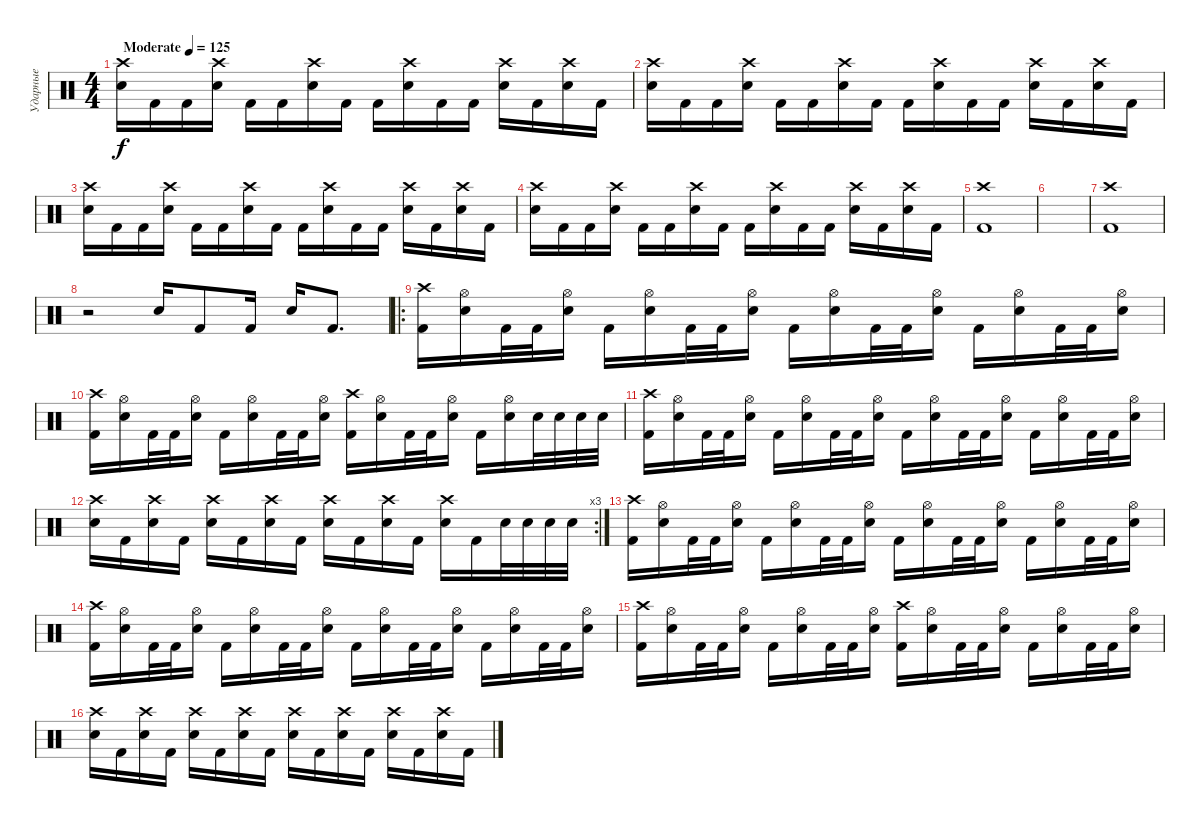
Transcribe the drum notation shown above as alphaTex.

\track ("Ударные" "Ударные") {instrument percussion}
\staff {score}
\articulation defaults
\ts (4 4)
\tempo (125 "Moderate")
\clef neutral
\ks c
("Electric Snare (hit)" "Crash high (hit)").16{dy f} "Kick (hit) 2".16 "Kick (hit) 2".16 ("Electric Snare (hit)" "Crash high (hit)").16 "Kick (hit) 2".16 "Kick (hit) 2".16 ("Electric Snare (hit)" "Crash high (hit)").16 "Kick (hit) 2".16 "Kick (hit) 2".16 ("Electric Snare (hit)" "Crash high (hit)").16 "Kick (hit) 2".16 "Kick (hit) 2".16 ("Electric Snare (hit)" "Crash high (hit)").16 "Kick (hit) 2".16 ("Electric Snare (hit)" "Crash high (hit)").16 "Kick (hit) 2".16 |
("Electric Snare (hit)" "Crash high (hit)").16 "Kick (hit) 2".16 "Kick (hit) 2".16 ("Electric Snare (hit)" "Crash high (hit)").16 "Kick (hit) 2".16 "Kick (hit) 2".16 ("Electric Snare (hit)" "Crash high (hit)").16 "Kick (hit) 2".16 "Kick (hit) 2".16 ("Electric Snare (hit)" "Crash high (hit)").16 "Kick (hit) 2".16 "Kick (hit) 2".16 ("Electric Snare (hit)" "Crash high (hit)").16 "Kick (hit) 2".16 ("Electric Snare (hit)" "Crash high (hit)").16 "Kick (hit) 2".16 |
("Electric Snare (hit)" "Crash high (hit)").16 "Kick (hit) 2".16 "Kick (hit) 2".16 ("Electric Snare (hit)" "Crash high (hit)").16 "Kick (hit) 2".16 "Kick (hit) 2".16 ("Electric Snare (hit)" "Crash high (hit)").16 "Kick (hit) 2".16 "Kick (hit) 2".16 ("Electric Snare (hit)" "Crash high (hit)").16 "Kick (hit) 2".16 "Kick (hit) 2".16 ("Electric Snare (hit)" "Crash high (hit)").16 "Kick (hit) 2".16 ("Electric Snare (hit)" "Crash high (hit)").16 "Kick (hit) 2".16 |
("Electric Snare (hit)" "Crash high (hit)").16 "Kick (hit) 2".16 "Kick (hit) 2".16 ("Electric Snare (hit)" "Crash high (hit)").16 "Kick (hit) 2".16 "Kick (hit) 2".16 ("Electric Snare (hit)" "Crash high (hit)").16 "Kick (hit) 2".16 "Kick (hit) 2".16 ("Electric Snare (hit)" "Crash high (hit)").16 "Kick (hit) 2".16 "Kick (hit) 2".16 ("Electric Snare (hit)" "Crash high (hit)").16 "Kick (hit) 2".16 ("Electric Snare (hit)" "Crash high (hit)").16 "Kick (hit) 2".16 |
("Kick (hit) 2" "Crash high (hit)").1 |
|
("Crash high (hit)" "Kick (hit) 2").1 |
r.2 "Electric Snare (hit)".16 "Kick (hit) 2".8 "Kick (hit) 2".16 "Electric Snare (hit)".16 "Kick (hit) 2".8{d} |
\ro
("Kick (hit) 2" "Crash high (hit)").16 ("Electric Snare (hit)" "Hi-Hat (open)").16 "Kick (hit) 2".32 "Kick (hit) 2".32 ("Electric Snare (hit)" "Hi-Hat (open)").16 "Kick (hit) 2".16 ("Electric Snare (hit)" "Hi-Hat (open)").16 "Kick (hit) 2".32 "Kick (hit) 2".32 ("Electric Snare (hit)" "Hi-Hat (open)").16 "Kick (hit) 2".16 ("Electric Snare (hit)" "Hi-Hat (open)").16 "Kick (hit) 2".32 "Kick (hit) 2".32 ("Electric Snare (hit)" "Hi-Hat (open)").16 "Kick (hit) 2".16 ("Electric Snare (hit)" "Hi-Hat (open)").16 "Kick (hit) 2".32 "Kick (hit) 2".32 ("Electric Snare (hit)" "Hi-Hat (open)").16 |
("Kick (hit) 2" "Crash high (hit)").16 ("Electric Snare (hit)" "Hi-Hat (open)").16 "Kick (hit) 2".32 "Kick (hit) 2".32 ("Electric Snare (hit)" "Hi-Hat (open)").16 "Kick (hit) 2".16 ("Electric Snare (hit)" "Hi-Hat (open)").16 "Kick (hit) 2".32 "Kick (hit) 2".32 ("Electric Snare (hit)" "Hi-Hat (open)").16 ("Kick (hit) 2" "Crash high (hit)").16 ("Electric Snare (hit)" "Hi-Hat (open)").16 "Kick (hit) 2".32 "Kick (hit) 2".32 ("Electric Snare (hit)" "Hi-Hat (open)").16 "Kick (hit) 2".16 ("Electric Snare (hit)" "Hi-Hat (open)").16 "Electric Snare (hit)".32 "Electric Snare (hit)".32 "Electric Snare (hit)".32 "Electric Snare (hit)".32 |
("Kick (hit) 2" "Crash high (hit)").16 ("Electric Snare (hit)" "Hi-Hat (open)").16 "Kick (hit) 2".32 "Kick (hit) 2".32 ("Electric Snare (hit)" "Hi-Hat (open)").16 "Kick (hit) 2".16 ("Electric Snare (hit)" "Hi-Hat (open)").16 "Kick (hit) 2".32 "Kick (hit) 2".32 ("Electric Snare (hit)" "Hi-Hat (open)").16 "Kick (hit) 2".16 ("Electric Snare (hit)" "Hi-Hat (open)").16 "Kick (hit) 2".32 "Kick (hit) 2".32 ("Electric Snare (hit)" "Hi-Hat (open)").16 "Kick (hit) 2".16 ("Electric Snare (hit)" "Hi-Hat (open)").16 "Kick (hit) 2".32 "Kick (hit) 2".32 ("Electric Snare (hit)" "Hi-Hat (open)").16 |
\rc 3
("Electric Snare (hit)" "Crash high (hit)").16 "Kick (hit) 2".16 ("Electric Snare (hit)" "Crash high (hit)").16 "Kick (hit) 2".16 ("Electric Snare (hit)" "Crash high (hit)").16 "Kick (hit) 2".16 ("Electric Snare (hit)" "Crash high (hit)").16 "Kick (hit) 2".16 ("Electric Snare (hit)" "Crash high (hit)").16 "Kick (hit) 2".16 ("Electric Snare (hit)" "Crash high (hit)").16 "Kick (hit) 2".16 ("Electric Snare (hit)" "Crash high (hit)").16 "Kick (hit) 2".16 "Electric Snare (hit)".32 "Electric Snare (hit)".32 "Electric Snare (hit)".32 "Electric Snare (hit)".32 |
("Kick (hit) 2" "Crash high (hit)").16 ("Electric Snare (hit)" "Hi-Hat (open)").16 "Kick (hit) 2".32 "Kick (hit) 2".32 ("Electric Snare (hit)" "Hi-Hat (open)").16 "Kick (hit) 2".16 ("Electric Snare (hit)" "Hi-Hat (open)").16 "Kick (hit) 2".32 "Kick (hit) 2".32 ("Electric Snare (hit)" "Hi-Hat (open)").16 "Kick (hit) 2".16 ("Electric Snare (hit)" "Hi-Hat (open)").16 "Kick (hit) 2".32 "Kick (hit) 2".32 ("Electric Snare (hit)" "Hi-Hat (open)").16 "Kick (hit) 2".16 ("Electric Snare (hit)" "Hi-Hat (open)").16 "Kick (hit) 2".32 "Kick (hit) 2".32 ("Electric Snare (hit)" "Hi-Hat (open)").16 |
("Kick (hit) 2" "Crash high (hit)").16 ("Electric Snare (hit)" "Hi-Hat (open)").16 "Kick (hit) 2".32 "Kick (hit) 2".32 ("Electric Snare (hit)" "Hi-Hat (open)").16 "Kick (hit) 2".16 ("Electric Snare (hit)" "Hi-Hat (open)").16 "Kick (hit) 2".32 "Kick (hit) 2".32 ("Electric Snare (hit)" "Hi-Hat (open)").16 "Kick (hit) 2".16 ("Electric Snare (hit)" "Hi-Hat (open)").16 "Kick (hit) 2".32 "Kick (hit) 2".32 ("Electric Snare (hit)" "Hi-Hat (open)").16 "Kick (hit) 2".16 ("Electric Snare (hit)" "Hi-Hat (open)").16 "Kick (hit) 2".32 "Kick (hit) 2".32 ("Electric Snare (hit)" "Hi-Hat (open)").16 |
("Kick (hit) 2" "Crash high (hit)").16 ("Electric Snare (hit)" "Hi-Hat (open)").16 "Kick (hit) 2".32 "Kick (hit) 2".32 ("Electric Snare (hit)" "Hi-Hat (open)").16 "Kick (hit) 2".16 ("Electric Snare (hit)" "Hi-Hat (open)").16 "Kick (hit) 2".32 "Kick (hit) 2".32 ("Electric Snare (hit)" "Hi-Hat (open)").16 ("Kick (hit) 2" "Crash high (hit)").16 ("Electric Snare (hit)" "Hi-Hat (open)").16 "Kick (hit) 2".32 "Kick (hit) 2".32 ("Electric Snare (hit)" "Hi-Hat (open)").16 "Kick (hit) 2".16 ("Electric Snare (hit)" "Hi-Hat (open)").16 "Kick (hit) 2".32 "Kick (hit) 2".32 ("Electric Snare (hit)" "Hi-Hat (open)").16 |
("Electric Snare (hit)" "Crash high (hit)").16 "Kick (hit) 2".16 ("Electric Snare (hit)" "Crash high (hit)").16 "Kick (hit) 2".16 ("Electric Snare (hit)" "Crash high (hit)").16 "Kick (hit) 2".16 ("Electric Snare (hit)" "Crash high (hit)").16 "Kick (hit) 2".16 ("Electric Snare (hit)" "Crash high (hit)").16 "Kick (hit) 2".16 ("Electric Snare (hit)" "Crash high (hit)").16 "Kick (hit) 2".16 ("Electric Snare (hit)" "Crash high (hit)").16 "Kick (hit) 2".16 ("Electric Snare (hit)" "Crash high (hit)").16 "Kick (hit) 2".16
